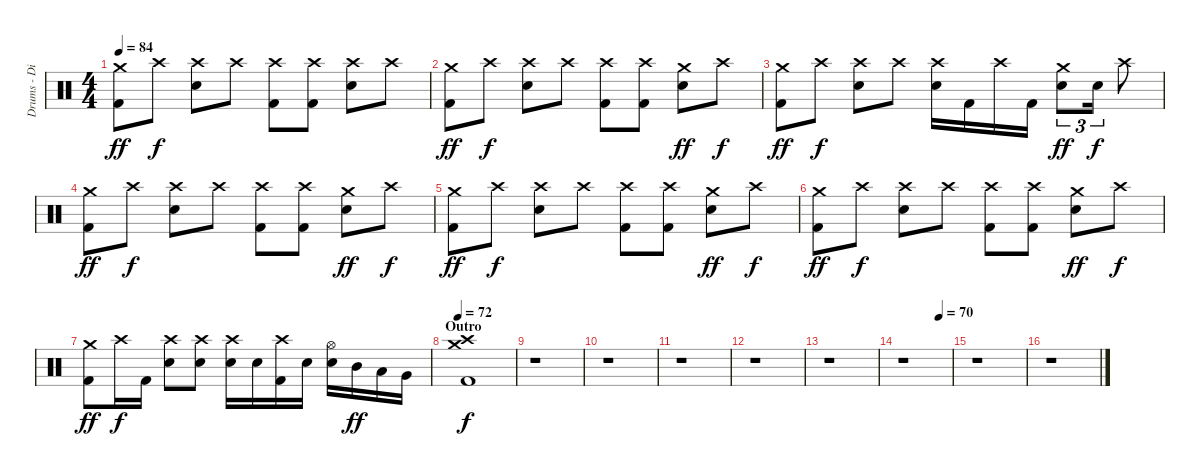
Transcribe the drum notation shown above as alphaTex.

\track ("Drums - Dino Campanella" "Drums - Di") {instrument percussion}
\staff {score}
\articulation defaults
\ts (4 4)
\tempo 84
\clef neutral
\ks c
("Crash medium (hit)" "Kick (hit) 2").8{dy ff} "Crash high (hit)".8{dy f} ("Crash high (hit)" "Electric Snare (hit)").8 "Crash high (hit)".8 ("Crash high (hit)" "Kick (hit) 2").8 ("Crash high (hit)" "Kick (hit) 2").8 ("Crash high (hit)" "Electric Snare (hit)").8 "Crash high (hit)".8 |
("Crash medium (hit)" "Kick (hit) 2").8{dy ff} "Crash high (hit)".8{dy f} ("Crash high (hit)" "Electric Snare (hit)").8 "Crash high (hit)".8 ("Crash high (hit)" "Kick (hit) 2").8 ("Crash high (hit)" "Kick (hit) 2").8 ("Crash medium (hit)" "Electric Snare (hit)").8{dy ff} "Crash high (hit)".8{dy f} |
("Crash medium (hit)" "Kick (hit) 2").8{dy ff} "Crash high (hit)".8{dy f} ("Crash high (hit)" "Electric Snare (hit)").8 "Crash high (hit)".8 ("Crash high (hit)" "Electric Snare (hit)").16 "Kick (hit) 2".16 "Crash high (hit)".16 "Kick (hit) 2".16 ("Crash medium (hit)" "Electric Snare (hit)").8{tu (3 2) dy ff} "Electric Snare (hit)".16{tu (3 2) dy f} "Crash high (hit)".8 |
("Crash medium (hit)" "Kick (hit) 2").8{dy ff} "Crash high (hit)".8{dy f} ("Crash high (hit)" "Electric Snare (hit)").8 "Crash high (hit)".8 ("Crash high (hit)" "Kick (hit) 2").8 ("Crash high (hit)" "Kick (hit) 2").8 ("Crash medium (hit)" "Electric Snare (hit)").8{dy ff} "Crash high (hit)".8{dy f} |
("Crash medium (hit)" "Kick (hit) 2").8{dy ff} "Crash high (hit)".8{dy f} ("Crash high (hit)" "Electric Snare (hit)").8 "Crash high (hit)".8 ("Crash high (hit)" "Kick (hit) 2").8 ("Crash high (hit)" "Kick (hit) 2").8 ("Crash medium (hit)" "Electric Snare (hit)").8{dy ff} "Crash high (hit)".8{dy f} |
("Crash medium (hit)" "Kick (hit) 2").8{dy ff} "Crash high (hit)".8{dy f} ("Crash high (hit)" "Electric Snare (hit)").8 "Crash high (hit)".8 ("Crash high (hit)" "Kick (hit) 2").8 ("Crash high (hit)" "Kick (hit) 2").8 ("Crash medium (hit)" "Electric Snare (hit)").8{dy ff} "Crash high (hit)".8{dy f} |
("Crash medium (hit)" "Kick (hit) 2").8{dy ff} "Crash high (hit)".16{dy f} "Kick (hit) 2".16 ("Crash high (hit)" "Electric Snare (hit)").8 ("Crash high (hit)" "Electric Snare (hit)").8 ("Crash high (hit)" "Electric Snare (hit)").16 "Electric Snare (hit)".16 ("Crash high (hit)" "Kick (hit) 2").16 "Electric Snare (hit)".16 ("Hi-Hat (open)" "Electric Snare (hit)").16 "Mid Tom (hit)".16{dy ff} "Low Tom (hit)".16 "Very Low Tom (hit)".16 |
\section ("" "Outro")
\tempo 72
("Crash high (hit)" "Crash medium (hit)" "Kick (hit) 2").1{dy f} |
r.1 |
r.1 |
r.1 |
r.1 |
r.1 |
\tempo (70 0.75)
r.1 |
r.1 |
r.1
